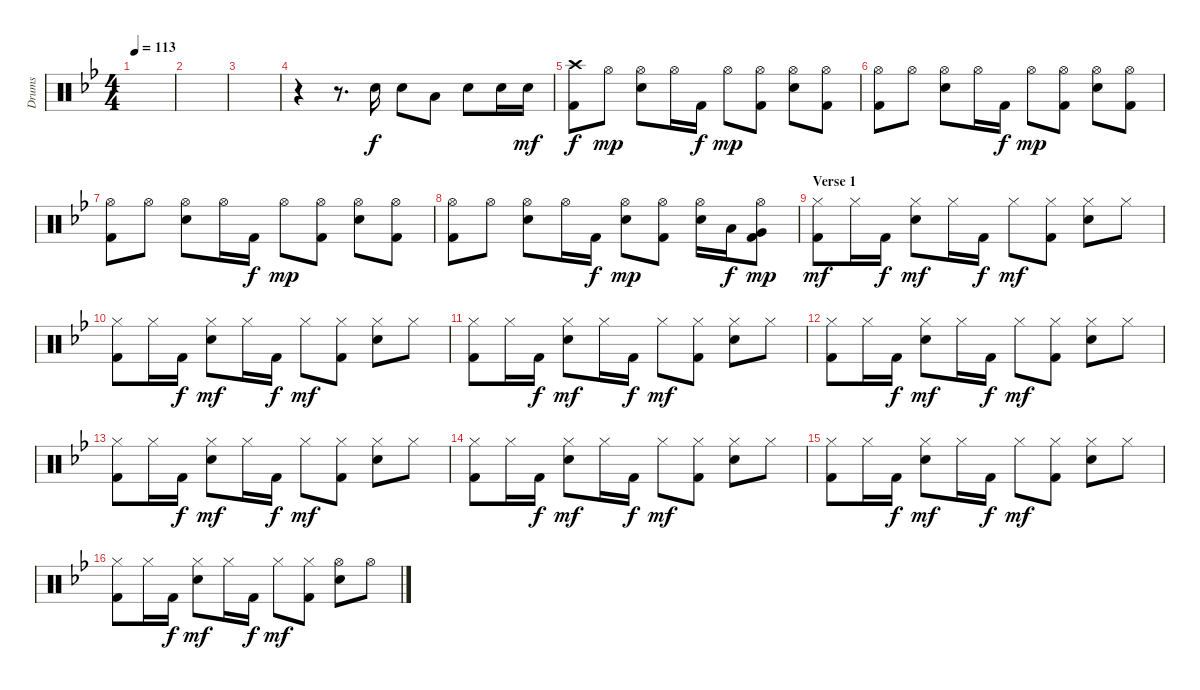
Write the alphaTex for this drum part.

\track ("Drums" "Drums") {instrument percussion}
\staff {score}
\articulation defaults
\ts (4 4)
\tempo 113
\clef neutral
\ks bb
|
|
|
r.4 r.8{d} "Electric Snare (hit)".16 "Electric Snare (hit)".8 "Low Tom (hit)".8 "Electric Snare (hit)".8 "Electric Snare (hit)".16 "Electric Snare (hit)".16{dy mf} |
("Crash high (hit)" "Kick (hit) 2").8{dy f} "Hi-Hat (open)".8{dy mp} ("Hi-Hat (open)" "Electric Snare (hit)").8 "Hi-Hat (open)".16 "Kick (hit) 2".16{dy f} "Hi-Hat (open)".8{dy mp} ("Hi-Hat (open)" "Kick (hit) 2").8 ("Hi-Hat (open)" "Electric Snare (hit)").8 ("Hi-Hat (open)" "Kick (hit) 2").8 |
("Hi-Hat (open)" "Kick (hit) 2").8 "Hi-Hat (open)".8 ("Hi-Hat (open)" "Electric Snare (hit)").8 "Hi-Hat (open)".16 "Kick (hit) 2".16{dy f} "Hi-Hat (open)".8{dy mp} ("Hi-Hat (open)" "Kick (hit) 2").8 ("Hi-Hat (open)" "Electric Snare (hit)").8 ("Hi-Hat (open)" "Kick (hit) 2").8 |
("Hi-Hat (open)" "Kick (hit) 2").8 "Hi-Hat (open)".8 ("Hi-Hat (open)" "Electric Snare (hit)").8 "Hi-Hat (open)".16 "Kick (hit) 2".16{dy f} "Hi-Hat (open)".8{dy mp} ("Hi-Hat (open)" "Kick (hit) 2").8 ("Hi-Hat (open)" "Electric Snare (hit)").8 ("Hi-Hat (open)" "Kick (hit) 2").8 |
("Hi-Hat (open)" "Kick (hit) 2").8 "Hi-Hat (open)".8 ("Hi-Hat (open)" "Electric Snare (hit)").8 "Hi-Hat (open)".16 "Kick (hit) 2".16{dy f} ("Hi-Hat (open)" "Electric Snare (hit)").8{dy mp} ("Hi-Hat (open)" "Kick (hit) 2").8 ("Hi-Hat (open)" "Electric Snare (hit)").16 "Low Tom (hit)".16{dy f} ("Hi-Hat (open)" "Very Low Tom (hit)" "Kick (hit) 2").8{dy mp} |
\section ("" "Verse 1")
("Hi-Hat (closed)" "Kick (hit) 2").8{dy mf} "Hi-Hat (closed)".16 "Kick (hit) 2".16{dy f} ("Hi-Hat (closed)" "Electric Snare (hit)").8{dy mf} "Hi-Hat (closed)".16 "Kick (hit) 2".16{dy f} "Hi-Hat (closed)".8{dy mf} ("Hi-Hat (closed)" "Kick (hit) 2").8 ("Hi-Hat (closed)" "Electric Snare (hit)").8 "Hi-Hat (closed)".8 |
("Hi-Hat (closed)" "Kick (hit) 2").8 "Hi-Hat (closed)".16 "Kick (hit) 2".16{dy f} ("Hi-Hat (closed)" "Electric Snare (hit)").8{dy mf} "Hi-Hat (closed)".16 "Kick (hit) 2".16{dy f} "Hi-Hat (closed)".8{dy mf} ("Hi-Hat (closed)" "Kick (hit) 2").8 ("Hi-Hat (closed)" "Electric Snare (hit)").8 "Hi-Hat (closed)".8 |
("Hi-Hat (closed)" "Kick (hit) 2").8 "Hi-Hat (closed)".16 "Kick (hit) 2".16{dy f} ("Hi-Hat (closed)" "Electric Snare (hit)").8{dy mf} "Hi-Hat (closed)".16 "Kick (hit) 2".16{dy f} "Hi-Hat (closed)".8{dy mf} ("Hi-Hat (closed)" "Kick (hit) 2").8 ("Hi-Hat (closed)" "Electric Snare (hit)").8 "Hi-Hat (closed)".8 |
("Hi-Hat (closed)" "Kick (hit) 2").8 "Hi-Hat (closed)".16 "Kick (hit) 2".16{dy f} ("Hi-Hat (closed)" "Electric Snare (hit)").8{dy mf} "Hi-Hat (closed)".16 "Kick (hit) 2".16{dy f} "Hi-Hat (closed)".8{dy mf} ("Hi-Hat (closed)" "Kick (hit) 2").8 ("Hi-Hat (closed)" "Electric Snare (hit)").8 "Hi-Hat (closed)".8 |
("Hi-Hat (closed)" "Kick (hit) 2").8 "Hi-Hat (closed)".16 "Kick (hit) 2".16{dy f} ("Hi-Hat (closed)" "Electric Snare (hit)").8{dy mf} "Hi-Hat (closed)".16 "Kick (hit) 2".16{dy f} "Hi-Hat (closed)".8{dy mf} ("Hi-Hat (closed)" "Kick (hit) 2").8 ("Hi-Hat (closed)" "Electric Snare (hit)").8 "Hi-Hat (closed)".8 |
("Hi-Hat (closed)" "Kick (hit) 2").8 "Hi-Hat (closed)".16 "Kick (hit) 2".16{dy f} ("Hi-Hat (closed)" "Electric Snare (hit)").8{dy mf} "Hi-Hat (closed)".16 "Kick (hit) 2".16{dy f} "Hi-Hat (closed)".8{dy mf} ("Hi-Hat (closed)" "Kick (hit) 2").8 ("Hi-Hat (closed)" "Electric Snare (hit)").8 "Hi-Hat (closed)".8 |
("Hi-Hat (closed)" "Kick (hit) 2").8 "Hi-Hat (closed)".16 "Kick (hit) 2".16{dy f} ("Hi-Hat (closed)" "Electric Snare (hit)").8{dy mf} "Hi-Hat (closed)".16 "Kick (hit) 2".16{dy f} "Hi-Hat (closed)".8{dy mf} ("Hi-Hat (closed)" "Kick (hit) 2").8 ("Hi-Hat (closed)" "Electric Snare (hit)").8 "Hi-Hat (closed)".8 |
("Hi-Hat (closed)" "Kick (hit) 2").8 "Hi-Hat (closed)".16 "Kick (hit) 2".16{dy f} ("Hi-Hat (closed)" "Electric Snare (hit)").8{dy mf} "Hi-Hat (closed)".16 "Kick (hit) 2".16{dy f} "Hi-Hat (closed)".8{dy mf} ("Hi-Hat (closed)" "Kick (hit) 2").8 ("Hi-Hat (open)" "Electric Snare (hit)").8 "Hi-Hat (open)".8
